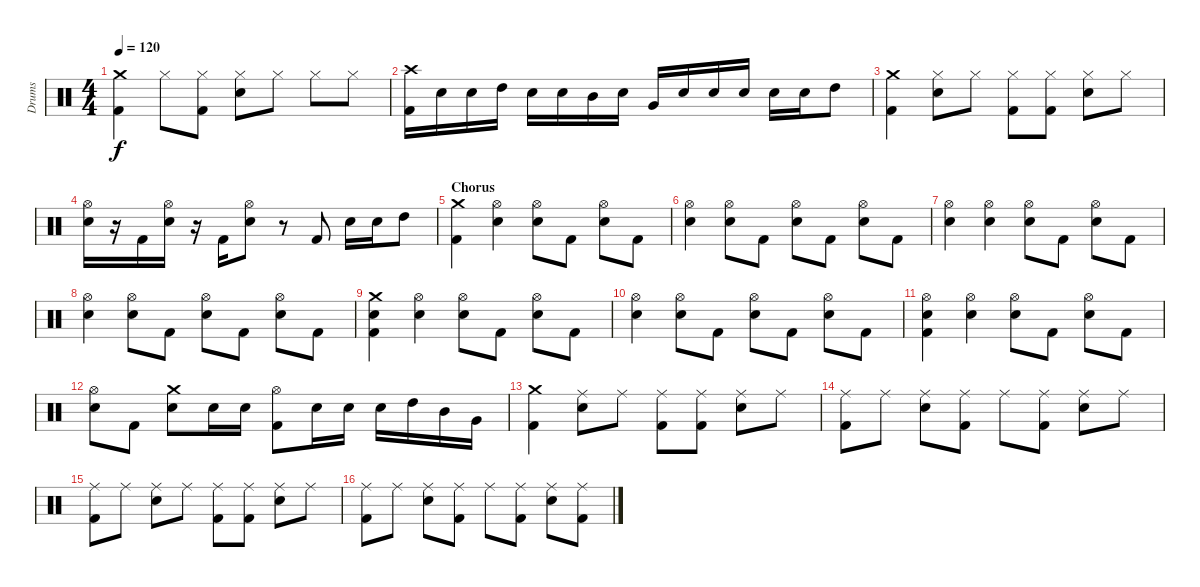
\track ("Drums" "Drums") {instrument percussion}
\staff {score}
\articulation defaults
\ts (4 4)
\tempo 120
\clef neutral
\ks c
("Crash medium (hit)" "Kick (hit) 2").4{dy f} "Hi-Hat (closed)".8 ("Hi-Hat (closed)" "Kick (hit) 2").8 ("Hi-Hat (closed)" "Snare (hit) 2").8 "Hi-Hat (closed)".8 "Hi-Hat (closed)".8 "Hi-Hat (closed)".8 |
("Crash high (hit)" "Kick (hit) 2").16 "Snare (hit) 2".16 "Snare (hit) 2".16 "High Tom (hit)".16 "Snare (hit) 2".16 "Snare (hit) 2".16 "Mid Tom (hit)".16 "Snare (hit) 2".16 "Very Low Tom (hit)".16 "Snare (hit) 2".16 "Snare (hit) 2".16 "Snare (hit) 2".16 "Snare (hit) 2".16 "Snare (hit) 2".16 "High Tom (hit)".8 |
("Crash medium (hit)" "Kick (hit) 2").4 ("Hi-Hat (closed)" "Snare (hit) 2").8 "Hi-Hat (closed)".8 ("Hi-Hat (closed)" "Kick (hit) 2").8 ("Hi-Hat (closed)" "Kick (hit) 2").8 ("Hi-Hat (closed)" "Snare (hit) 2").8 "Hi-Hat (closed)".8 |
("Hi-Hat (open)" "Snare (hit) 2").16 r.16 "Kick (hit) 2".16 ("Hi-Hat (open)" "Snare (hit) 2").16 r.16 "Kick (hit) 2".16 ("Hi-Hat (open)" "Snare (hit) 2").8 r.8 "Kick (hit) 2".8 "Snare (hit) 2".16 "Snare (hit) 2".16 "High Tom (hit)".8 |
\section ("" "Chorus")
("Crash medium (hit)" "Kick (hit) 2").4 ("Hi-Hat (open)" "Snare (hit) 2").4 ("Hi-Hat (open)" "Snare (hit) 2").8 "Kick (hit) 2".8 ("Hi-Hat (open)" "Snare (hit) 2").8 "Kick (hit) 2".8 |
("Hi-Hat (open)" "Snare (hit) 2").4 ("Hi-Hat (open)" "Snare (hit) 2").8 "Kick (hit) 2".8 ("Hi-Hat (open)" "Snare (hit) 2").8 "Kick (hit) 2".8 ("Hi-Hat (open)" "Snare (hit) 2").8 "Kick (hit) 2".8 |
("Hi-Hat (open)" "Snare (hit) 2").4 ("Hi-Hat (open)" "Snare (hit) 2").4 ("Hi-Hat (open)" "Snare (hit) 2").8 "Kick (hit) 2".8 ("Hi-Hat (open)" "Snare (hit) 2").8 "Kick (hit) 2".8 |
("Hi-Hat (open)" "Snare (hit) 2").4 ("Hi-Hat (open)" "Snare (hit) 2").8 "Kick (hit) 2".8 ("Hi-Hat (open)" "Snare (hit) 2").8 "Kick (hit) 2".8 ("Hi-Hat (open)" "Snare (hit) 2").8 "Kick (hit) 2".8 |
("Crash medium (hit)" "Snare (hit) 2" "Kick (hit) 2").4 ("Hi-Hat (open)" "Snare (hit) 2").4 ("Hi-Hat (open)" "Snare (hit) 2").8 "Kick (hit) 2".8 ("Hi-Hat (open)" "Snare (hit) 2").8 "Kick (hit) 2".8 |
("Hi-Hat (open)" "Snare (hit) 2").4 ("Hi-Hat (open)" "Snare (hit) 2").8 "Kick (hit) 2".8 ("Hi-Hat (open)" "Snare (hit) 2").8 "Kick (hit) 2".8 ("Hi-Hat (open)" "Snare (hit) 2").8 "Kick (hit) 2".8 |
("Hi-Hat (open)" "Snare (hit) 2" "Kick (hit) 2").4 ("Hi-Hat (open)" "Snare (hit) 2").4 ("Hi-Hat (open)" "Snare (hit) 2").8 "Kick (hit) 2".8 ("Hi-Hat (open)" "Snare (hit) 2").8 "Kick (hit) 2".8 |
("Hi-Hat (open)" "Snare (hit) 2").8 "Kick (hit) 2".8 ("Crash medium (hit)" "Snare (hit) 2").8 "Snare (hit) 2".16 "Snare (hit) 2".16 ("Hi-Hat (open)" "Kick (hit) 2").8 "Snare (hit) 2".16 "Snare (hit) 2".16 "Snare (hit) 2".16 "High Tom (hit)".16 "Mid Tom (hit)".16 "Very Low Tom (hit)".16 |
("Crash medium (hit)" "Kick (hit) 2").4 ("Ride (middle)" "Snare (hit) 2").8 "Ride (middle)".8 ("Ride (middle)" "Kick (hit) 2").8 ("Ride (middle)" "Kick (hit) 2").8 ("Ride (middle)" "Snare (hit) 2").8 "Ride (middle)".8 |
("Ride (middle)" "Kick (hit) 2").8 "Ride (middle)".8 ("Ride (middle)" "Snare (hit) 2").8 ("Ride (middle)" "Kick (hit) 2").8 "Ride (middle)".8 ("Ride (middle)" "Kick (hit) 2").8 ("Ride (middle)" "Snare (hit) 2").8 "Ride (middle)".8 |
("Ride (middle)" "Kick (hit) 2").8 "Ride (middle)".8 ("Ride (middle)" "Snare (hit) 2").8 "Ride (middle)".8 ("Ride (middle)" "Kick (hit) 2").8 ("Ride (middle)" "Kick (hit) 2").8 ("Ride (middle)" "Snare (hit) 2").8 "Ride (middle)".8 |
("Ride (middle)" "Kick (hit) 2").8 "Ride (middle)".8 ("Ride (middle)" "Snare (hit) 2").8 ("Ride (middle)" "Kick (hit) 2").8 "Ride (middle)".8 ("Ride (middle)" "Kick (hit) 2").8 ("Ride (middle)" "Snare (hit) 2").8 ("Ride (middle)" "Kick (hit) 2").8
